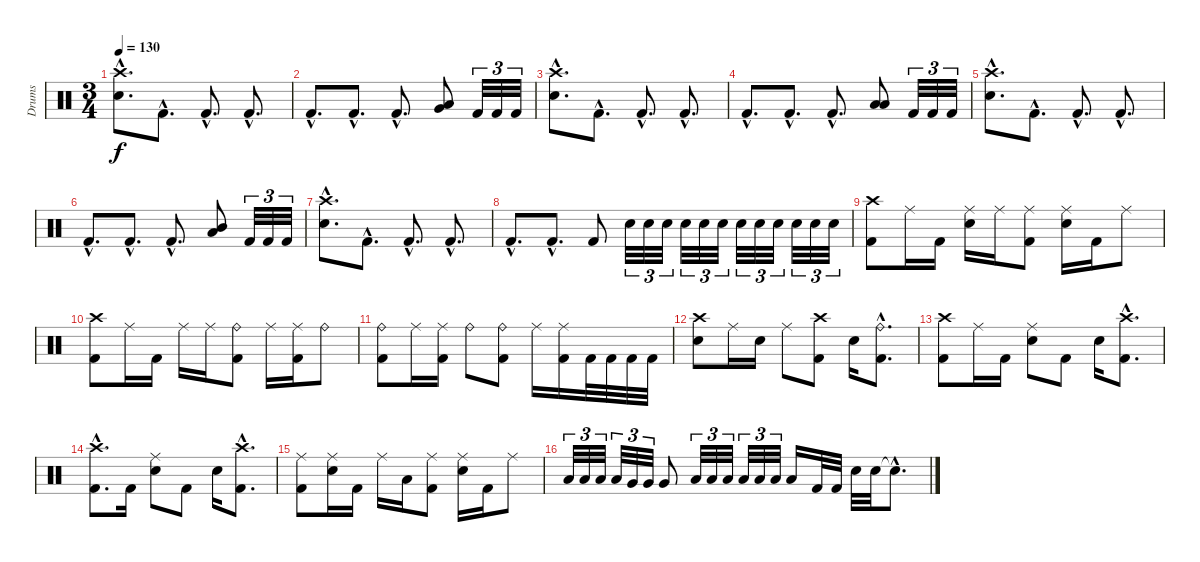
\track ("Drums" "Drums") {instrument percussion}
\staff {score}
\articulation defaults
\ts (3 4)
\tempo 130
\clef neutral
\ks c
("Crash high (hit)"{hac} "Snare (hit) 2"{hac}).8{d dy f} "Kick (hit) 2"{hac}.8{d} "Kick (hit) 2"{hac}.8{d} "Kick (hit) 2"{hac}.8{d} |
"Kick (hit) 2"{hac}.8{d} "Kick (hit) 2"{hac}.8{d} "Kick (hit) 2"{hac}.8{d} ("Low Floor Tom (hit)" "Very Low Tom (hit)").8 "Kick (hit) 2".32{tu (3 2)} "Kick (hit) 2".32{tu (3 2)} "Kick (hit) 2".32{tu (3 2)} |
("Crash high (hit)"{hac} "Snare (hit) 2"{hac}).8{d} "Kick (hit) 2"{hac}.8{d} "Kick (hit) 2"{hac}.8{d} "Kick (hit) 2"{hac}.8{d} |
"Kick (hit) 2"{hac}.8{d} "Kick (hit) 2"{hac}.8{d} "Kick (hit) 2"{hac}.8{d} ("Low Tom (hit)" "Low Floor Tom (hit)").8 "Kick (hit) 2".32{tu (3 2)} "Kick (hit) 2".32{tu (3 2)} "Kick (hit) 2".32{tu (3 2)} |
("Crash high (hit)"{hac} "Snare (hit) 2"{hac}).8{d} "Kick (hit) 2"{hac}.8{d} "Kick (hit) 2"{hac}.8{d} "Kick (hit) 2"{hac}.8{d} |
"Kick (hit) 2"{hac}.8{d} "Kick (hit) 2"{hac}.8{d} "Kick (hit) 2"{hac}.8{d} ("Mid Tom (hit)" "Low Tom (hit)").8 "Kick (hit) 2".32{tu (3 2)} "Kick (hit) 2".32{tu (3 2)} "Kick (hit) 2".32{tu (3 2)} |
("Crash high (hit)"{hac} "Snare (hit) 2"{hac}).8{d} "Kick (hit) 2"{hac}.8{d} "Kick (hit) 2"{hac}.8{d} "Kick (hit) 2"{hac}.8{d} |
"Kick (hit) 2"{hac}.8{d} "Kick (hit) 2"{hac}.8{d} "Kick (hit) 2".8 "Snare (hit) 2".32{tu (3 2)} "Snare (hit) 2".32{tu (3 2)} "Snare (hit) 2".32{tu (3 2)} "Snare (hit) 2".32{tu (3 2)} "Snare (hit) 2".32{tu (3 2)} "Snare (hit) 2".32{tu (3 2)} "Snare (hit) 2".32{tu (3 2)} "Snare (hit) 2".32{tu (3 2)} "Snare (hit) 2".32{tu (3 2)} "Snare (hit) 2".32{tu (3 2)} "Snare (hit) 2".32{tu (3 2)} "Snare (hit) 2".32{tu (3 2)} |
("Crash high (hit)" "Kick (hit) 2").8 "Ride (middle)".16 "Kick (hit) 2".16 ("Ride (middle)" "Snare (hit) 2").16 "Ride (middle)".16 ("Ride (middle)" "Kick (hit) 2").8 ("Ride (middle)" "Snare (hit) 2").16 "Kick (hit) 2".16 "Ride (middle)".8 |
("Crash high (hit)" "Kick (hit) 2").8 "Ride (middle)".16 "Kick (hit) 2".16 "Ride (middle)".16 "Ride (middle)".16 ("Ride (bell)" "Kick (hit) 2").8 "Ride (middle)".16 ("Ride (middle)" "Kick (hit) 2").16 "Ride (bell)".8 |
("Ride (bell)" "Kick (hit) 2").8 "Ride (middle)".16 ("Ride (middle)" "Kick (hit) 2").16 "Ride (bell)".8 ("Ride (bell)" "Kick (hit) 2").8 "Ride (middle)".16 ("Ride (middle)" "Kick (hit) 2").16 "Kick (hit) 2".32 "Kick (hit) 2".32 "Kick (hit) 2".32 "Kick (hit) 2".32 |
("Crash high (hit)" "Snare (hit) 2").8 "Ride (middle)".16 "Snare (hit) 2".16 "Ride (middle)".8 ("Crash high (hit)" "Kick (hit) 2").8 "Snare (hit) 2".16 ("Ride (bell)"{hac} "Kick (hit) 2"{hac}).8{d} |
("Crash high (hit)" "Kick (hit) 2").8 "Ride (middle)".16 "Kick (hit) 2".16 ("Ride (middle)" "Snare (hit) 2").8 "Kick (hit) 2".8 "Snare (hit) 2".16 ("Crash high (hit)"{hac} "Kick (hit) 2"{hac}).8{d} |
("Crash high (hit)"{hac} "Kick (hit) 2"{hac}).8{d} "Kick (hit) 2".16 ("Ride (middle)" "Snare (hit) 2").8 "Kick (hit) 2".8 "Snare (hit) 2".16 ("Crash high (hit)"{hac} "Kick (hit) 2"{hac}).8{d} |
("Ride (middle)" "Kick (hit) 2").8 ("Ride (middle)" "Snare (hit) 2").16 "Kick (hit) 2".16 "Ride (middle)".16 "Low Tom (hit)".16 ("Ride (middle)" "Kick (hit) 2").8 ("Ride (middle)" "Snare (hit) 2").16 "Kick (hit) 2".16 "Ride (middle)".8 |
"Low Floor Tom (hit)".32{tu (3 2)} "Low Floor Tom (hit)".32{tu (3 2)} "Low Floor Tom (hit)".32{tu (3 2)} "Low Floor Tom (hit)".32{tu (3 2)} "Very Low Tom (hit)".32{tu (3 2)} "Very Low Tom (hit)".32{tu (3 2)} "Very Low Tom (hit)".8 "Low Floor Tom (hit)".32{tu (3 2)} "Low Floor Tom (hit)".32{tu (3 2)} "Low Floor Tom (hit)".32{tu (3 2)} "Low Floor Tom (hit)".32{tu (3 2)} "Low Floor Tom (hit)".32{tu (3 2)} "Low Floor Tom (hit)".32{tu (3 2)} "Low Tom (hit)".16 "Kick (hit) 2".32 "Kick (hit) 2".32 "Snare (hit) 2".32 "Snare (hit) 2".32 "Snare (hit)"{hac t}.8{d}
